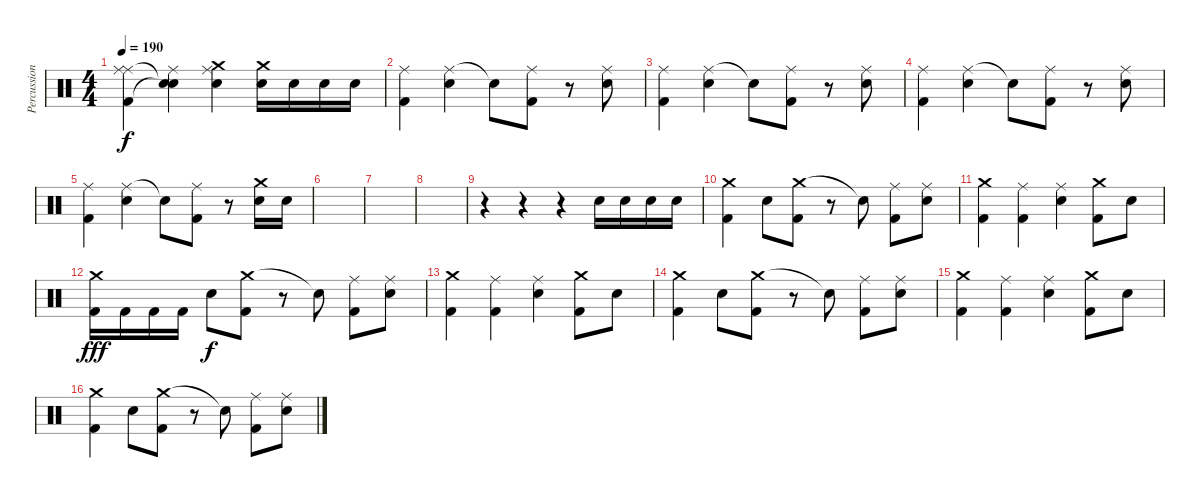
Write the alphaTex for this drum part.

\track ("Percussions" "Percussion") {instrument percussion}
\staff {score}
\articulation defaults
\ts (4 4)
\tempo 190
\clef neutral
\ks c
("Ride (middle)" "Ride (middle)" "Kick (hit) 2").4{dy f} ("Ride (middle)" "Snare (hit)"{t} "Snare (hit)"{t}).4 ("Ride (middle)" "Crash medium (hit)" "Electric Snare (hit)").4 ("Crash medium (hit)" "Electric Snare (hit)").16 "Electric Snare (hit)".16 "Electric Snare (hit)".16 "Electric Snare (hit)".16 |
("Ride (middle)" "Kick (hit) 2").4 ("Ride (middle)" "Electric Snare (hit)").4 "Snare (hit)"{t}.8 ("Ride (middle)" "Kick (hit) 2").8 r.8 ("Ride (middle)" "Electric Snare (hit)").8 |
("Ride (middle)" "Kick (hit) 2").4 ("Ride (middle)" "Electric Snare (hit)").4 "Snare (hit)"{t}.8 ("Ride (middle)" "Kick (hit) 2").8 r.8 ("Electric Snare (hit)" "Ride (middle)").8 |
("Ride (middle)" "Kick (hit) 2").4 ("Ride (middle)" "Electric Snare (hit)").4 "Snare (hit)"{t}.8 ("Ride (middle)" "Kick (hit) 2").8 r.8 ("Ride (middle)" "Electric Snare (hit)").8 |
("Ride (middle)" "Kick (hit) 2").4 ("Ride (middle)" "Electric Snare (hit)").4 "Snare (hit)"{t}.8 ("Ride (middle)" "Kick (hit) 2").8 r.8 ("Crash medium (hit)" "Electric Snare (hit)").16 "Electric Snare (hit)".16 |
|
|
|
r.4 r.4 r.4 "Electric Snare (hit)".16 "Electric Snare (hit)".16 "Electric Snare (hit)".16 "Electric Snare (hit)".16 |
("Crash medium (hit)" "Kick (hit) 2").4 "Electric Snare (hit)".8 ("Crash medium (hit)" "Kick (hit) 2").8 r.8 "Snare (hit)"{t}.8 ("Ride (middle)" "Kick (hit) 2").8 ("Ride (middle)" "Electric Snare (hit)").8 |
("Crash medium (hit)" "Kick (hit) 2").4 ("Ride (middle)" "Kick (hit) 2").4 ("Ride (middle)" "Electric Snare (hit)").4 ("Crash medium (hit)" "Kick (hit) 2").8 "Electric Snare (hit)".8 |
("Crash medium (hit)" "Kick (hit) 2").16{dy fff} "Kick (hit) 2".16 "Kick (hit) 2".16 "Kick (hit) 2".16 "Electric Snare (hit)".8{dy f} ("Crash medium (hit)" "Kick (hit) 2").8 r.8 "Snare (hit)"{t}.8 ("Ride (middle)" "Kick (hit) 2").8 ("Ride (middle)" "Electric Snare (hit)").8 |
("Crash medium (hit)" "Kick (hit) 2").4 ("Ride (middle)" "Kick (hit) 2").4 ("Ride (middle)" "Electric Snare (hit)").4 ("Crash medium (hit)" "Kick (hit) 2").8 "Electric Snare (hit)".8 |
("Crash medium (hit)" "Kick (hit) 2").4 "Electric Snare (hit)".8 ("Crash medium (hit)" "Kick (hit) 2").8 r.8 "Snare (hit)"{t}.8 ("Ride (middle)" "Kick (hit) 2").8 ("Ride (middle)" "Electric Snare (hit)").8 |
("Crash medium (hit)" "Kick (hit) 2").4 ("Ride (middle)" "Kick (hit) 2").4 ("Ride (middle)" "Electric Snare (hit)").4 ("Crash medium (hit)" "Kick (hit) 2").8 "Electric Snare (hit)".8 |
("Crash medium (hit)" "Kick (hit) 2").4 "Electric Snare (hit)".8 ("Crash medium (hit)" "Kick (hit) 2").8 r.8 "Snare (hit)"{t}.8 ("Ride (middle)" "Kick (hit) 2").8 ("Ride (middle)" "Electric Snare (hit)").8
